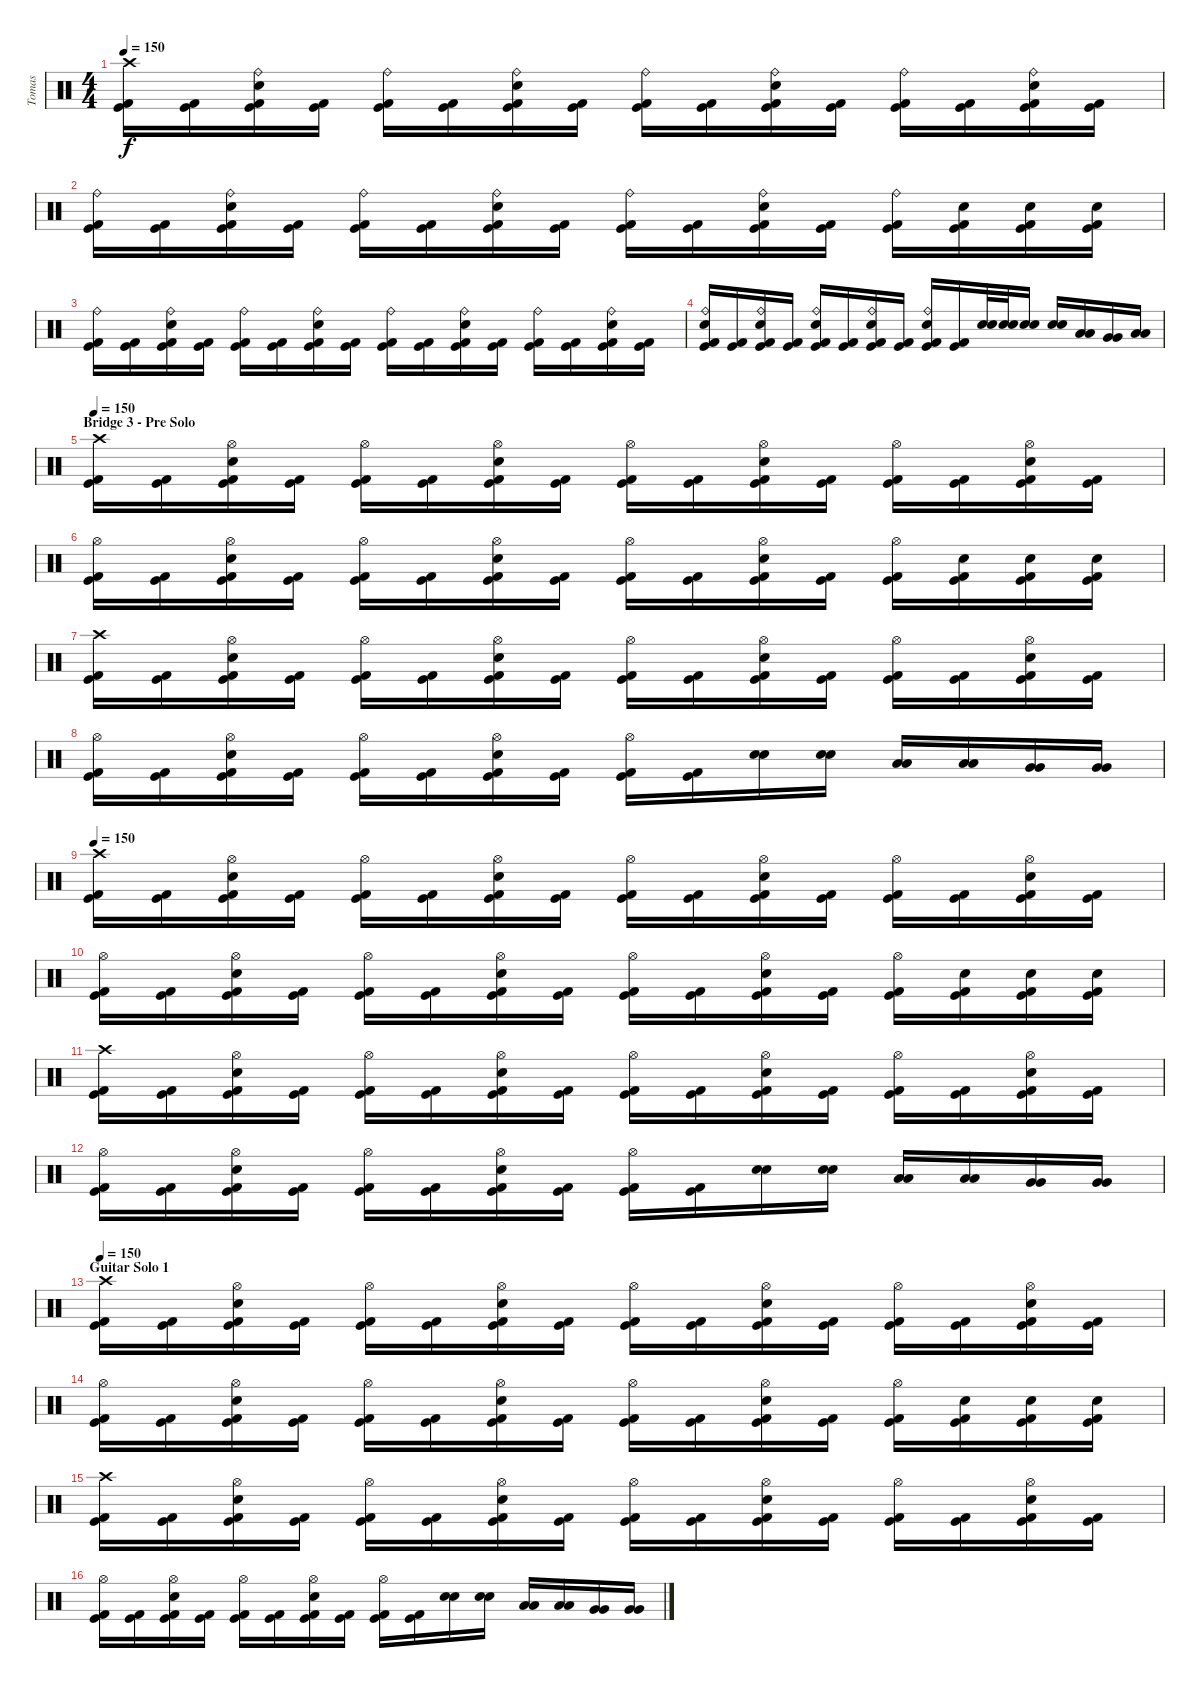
\track ("Tomas" "Tomas") {instrument percussion}
\staff {score}
\articulation defaults
\ts (4 4)
\tempo 150
\clef neutral
\ks c
("Crash high (hit)" "Kick (hit)" "Kick (hit) 2").16{dy f} ("Kick (hit)" "Kick (hit) 2").16 ("Ride (bell)" "Electric Snare (hit)" "Kick (hit)" "Kick (hit) 2").16 ("Kick (hit)" "Kick (hit) 2").16 ("Ride (bell)" "Kick (hit)" "Kick (hit) 2").16 ("Kick (hit)" "Kick (hit) 2").16 ("Ride (bell)" "Electric Snare (hit)" "Kick (hit)" "Kick (hit) 2").16 ("Kick (hit)" "Kick (hit) 2").16 ("Ride (bell)" "Kick (hit)" "Kick (hit) 2").16 ("Kick (hit)" "Kick (hit) 2").16 ("Ride (bell)" "Electric Snare (hit)" "Kick (hit)" "Kick (hit) 2").16 ("Kick (hit)" "Kick (hit) 2").16 ("Ride (bell)" "Kick (hit)" "Kick (hit) 2").16 ("Kick (hit)" "Kick (hit) 2").16 ("Ride (bell)" "Electric Snare (hit)" "Kick (hit)" "Kick (hit) 2").16 ("Kick (hit)" "Kick (hit) 2").16 |
("Ride (bell)" "Kick (hit)" "Kick (hit) 2").16 ("Kick (hit)" "Kick (hit) 2").16 ("Ride (bell)" "Electric Snare (hit)" "Kick (hit)" "Kick (hit) 2").16 ("Kick (hit)" "Kick (hit) 2").16 ("Ride (bell)" "Kick (hit)" "Kick (hit) 2").16 ("Kick (hit)" "Kick (hit) 2").16 ("Ride (bell)" "Electric Snare (hit)" "Kick (hit)" "Kick (hit) 2").16 ("Kick (hit)" "Kick (hit) 2").16 ("Ride (bell)" "Kick (hit)" "Kick (hit) 2").16 ("Kick (hit)" "Kick (hit) 2").16 ("Ride (bell)" "Electric Snare (hit)" "Kick (hit)" "Kick (hit) 2").16 ("Kick (hit)" "Kick (hit) 2").16 ("Ride (bell)" "Kick (hit)" "Kick (hit) 2").16 ("Electric Snare (hit)" "Kick (hit)" "Kick (hit) 2").16 ("Electric Snare (hit)" "Kick (hit)" "Kick (hit) 2").16 ("Electric Snare (hit)" "Kick (hit)" "Kick (hit) 2").16 |
("Ride (bell)" "Kick (hit)" "Kick (hit) 2").16 ("Kick (hit)" "Kick (hit) 2").16 ("Ride (bell)" "Electric Snare (hit)" "Kick (hit)" "Kick (hit) 2").16 ("Kick (hit)" "Kick (hit) 2").16 ("Ride (bell)" "Kick (hit)" "Kick (hit) 2").16 ("Kick (hit)" "Kick (hit) 2").16 ("Ride (bell)" "Electric Snare (hit)" "Kick (hit)" "Kick (hit) 2").16 ("Kick (hit)" "Kick (hit) 2").16 ("Ride (bell)" "Kick (hit)" "Kick (hit) 2").16 ("Kick (hit)" "Kick (hit) 2").16 ("Ride (bell)" "Electric Snare (hit)" "Kick (hit)" "Kick (hit) 2").16 ("Kick (hit)" "Kick (hit) 2").16 ("Ride (bell)" "Kick (hit)" "Kick (hit) 2").16 ("Kick (hit)" "Kick (hit) 2").16 ("Ride (bell)" "Electric Snare (hit)" "Kick (hit)" "Kick (hit) 2").16 ("Kick (hit)" "Kick (hit) 2").16 |
("Ride (bell)" "Electric Snare (hit)" "Kick (hit)" "Kick (hit) 2").16 ("Kick (hit)" "Kick (hit) 2").16 ("Ride (bell)" "Electric Snare (hit)" "Kick (hit)" "Kick (hit) 2").16 ("Kick (hit)" "Kick (hit) 2").16 ("Ride (bell)" "Electric Snare (hit)" "Kick (hit)" "Kick (hit) 2").16 ("Kick (hit)" "Kick (hit) 2").16 ("Ride (bell)" "Electric Snare (hit)" "Kick (hit)" "Kick (hit) 2").16 ("Kick (hit)" "Kick (hit) 2").16 ("Ride (bell)" "Electric Snare (hit)" "Kick (hit)" "Kick (hit) 2").16 ("Kick (hit)" "Kick (hit) 2").16 ("Electric Snare (hit)" "Electric Snare (hit)").32 ("Electric Snare (hit)" "Electric Snare (hit)").32 ("Electric Snare (hit)" "Electric Snare (hit)").16 ("Electric Snare (hit)" "Electric Snare (hit)").16 ("Low Tom (hit)" "Low Tom (hit)").16 ("Very Low Tom (hit)" "Very Low Tom (hit)").16 ("Low Floor Tom (hit)" "Low Floor Tom (hit)").16 |
\section ("" "Bridge 3 - Pre Solo")
\tempo 150
("Crash high (hit)" "Kick (hit)" "Kick (hit) 2").16 ("Kick (hit)" "Kick (hit) 2").16 ("Hi-Hat (open)" "Electric Snare (hit)" "Kick (hit)" "Kick (hit) 2").16 ("Kick (hit)" "Kick (hit) 2").16 ("Hi-Hat (open)" "Kick (hit)" "Kick (hit) 2").16 ("Kick (hit)" "Kick (hit) 2").16 ("Hi-Hat (open)" "Electric Snare (hit)" "Kick (hit)" "Kick (hit) 2").16 ("Kick (hit)" "Kick (hit) 2").16 ("Hi-Hat (open)" "Kick (hit)" "Kick (hit) 2").16 ("Kick (hit)" "Kick (hit) 2").16 ("Hi-Hat (open)" "Electric Snare (hit)" "Kick (hit)" "Kick (hit) 2").16 ("Kick (hit)" "Kick (hit) 2").16 ("Hi-Hat (open)" "Kick (hit)" "Kick (hit) 2").16 ("Kick (hit)" "Kick (hit) 2").16 ("Hi-Hat (open)" "Electric Snare (hit)" "Kick (hit)" "Kick (hit) 2").16 ("Kick (hit)" "Kick (hit) 2").16 |
("Hi-Hat (open)" "Kick (hit)" "Kick (hit) 2").16 ("Kick (hit)" "Kick (hit) 2").16 ("Hi-Hat (open)" "Electric Snare (hit)" "Kick (hit)" "Kick (hit) 2").16 ("Kick (hit)" "Kick (hit) 2").16 ("Hi-Hat (open)" "Kick (hit)" "Kick (hit) 2").16 ("Kick (hit)" "Kick (hit) 2").16 ("Hi-Hat (open)" "Electric Snare (hit)" "Kick (hit)" "Kick (hit) 2").16 ("Kick (hit)" "Kick (hit) 2").16 ("Hi-Hat (open)" "Kick (hit)" "Kick (hit) 2").16 ("Kick (hit)" "Kick (hit) 2").16 ("Hi-Hat (open)" "Electric Snare (hit)" "Kick (hit)" "Kick (hit) 2").16 ("Kick (hit)" "Kick (hit) 2").16 ("Hi-Hat (open)" "Kick (hit)" "Kick (hit) 2").16 ("Electric Snare (hit)" "Kick (hit)" "Kick (hit) 2").16 ("Electric Snare (hit)" "Kick (hit)" "Kick (hit) 2").16 ("Electric Snare (hit)" "Kick (hit)" "Kick (hit) 2").16 |
("Crash high (hit)" "Kick (hit)" "Kick (hit) 2").16 ("Kick (hit)" "Kick (hit) 2").16 ("Hi-Hat (open)" "Electric Snare (hit)" "Kick (hit)" "Kick (hit) 2").16 ("Kick (hit)" "Kick (hit) 2").16 ("Hi-Hat (open)" "Kick (hit)" "Kick (hit) 2").16 ("Kick (hit)" "Kick (hit) 2").16 ("Hi-Hat (open)" "Electric Snare (hit)" "Kick (hit)" "Kick (hit) 2").16 ("Kick (hit)" "Kick (hit) 2").16 ("Hi-Hat (open)" "Kick (hit)" "Kick (hit) 2").16 ("Kick (hit)" "Kick (hit) 2").16 ("Hi-Hat (open)" "Electric Snare (hit)" "Kick (hit)" "Kick (hit) 2").16 ("Kick (hit)" "Kick (hit) 2").16 ("Hi-Hat (open)" "Kick (hit)" "Kick (hit) 2").16 ("Kick (hit)" "Kick (hit) 2").16 ("Hi-Hat (open)" "Electric Snare (hit)" "Kick (hit)" "Kick (hit) 2").16 ("Kick (hit)" "Kick (hit) 2").16 |
("Hi-Hat (open)" "Kick (hit)" "Kick (hit) 2").16 ("Kick (hit)" "Kick (hit) 2").16 ("Hi-Hat (open)" "Electric Snare (hit)" "Kick (hit)" "Kick (hit) 2").16 ("Kick (hit)" "Kick (hit) 2").16 ("Hi-Hat (open)" "Kick (hit)" "Kick (hit) 2").16 ("Kick (hit)" "Kick (hit) 2").16 ("Hi-Hat (open)" "Electric Snare (hit)" "Kick (hit)" "Kick (hit) 2").16 ("Kick (hit)" "Kick (hit) 2").16 ("Hi-Hat (open)" "Kick (hit)" "Kick (hit) 2").16 ("Kick (hit)" "Kick (hit) 2").16 ("Electric Snare (hit)" "Electric Snare (hit)").16 ("Electric Snare (hit)" "Electric Snare (hit)").16 ("Low Tom (hit)" "Low Tom (hit)").16 ("Low Tom (hit)" "Low Tom (hit)").16 ("Very Low Tom (hit)" "Very Low Tom (hit)").16 ("Very Low Tom (hit)" "Very Low Tom (hit)").16 |
\tempo 150
("Crash high (hit)" "Kick (hit)" "Kick (hit) 2").16 ("Kick (hit)" "Kick (hit) 2").16 ("Hi-Hat (open)" "Electric Snare (hit)" "Kick (hit)" "Kick (hit) 2").16 ("Kick (hit)" "Kick (hit) 2").16 ("Hi-Hat (open)" "Kick (hit)" "Kick (hit) 2").16 ("Kick (hit)" "Kick (hit) 2").16 ("Hi-Hat (open)" "Electric Snare (hit)" "Kick (hit)" "Kick (hit) 2").16 ("Kick (hit)" "Kick (hit) 2").16 ("Hi-Hat (open)" "Kick (hit)" "Kick (hit) 2").16 ("Kick (hit)" "Kick (hit) 2").16 ("Hi-Hat (open)" "Electric Snare (hit)" "Kick (hit)" "Kick (hit) 2").16 ("Kick (hit)" "Kick (hit) 2").16 ("Hi-Hat (open)" "Kick (hit)" "Kick (hit) 2").16 ("Kick (hit)" "Kick (hit) 2").16 ("Hi-Hat (open)" "Electric Snare (hit)" "Kick (hit)" "Kick (hit) 2").16 ("Kick (hit)" "Kick (hit) 2").16 |
("Hi-Hat (open)" "Kick (hit)" "Kick (hit) 2").16 ("Kick (hit)" "Kick (hit) 2").16 ("Hi-Hat (open)" "Electric Snare (hit)" "Kick (hit)" "Kick (hit) 2").16 ("Kick (hit)" "Kick (hit) 2").16 ("Hi-Hat (open)" "Kick (hit)" "Kick (hit) 2").16 ("Kick (hit)" "Kick (hit) 2").16 ("Hi-Hat (open)" "Electric Snare (hit)" "Kick (hit)" "Kick (hit) 2").16 ("Kick (hit)" "Kick (hit) 2").16 ("Hi-Hat (open)" "Kick (hit)" "Kick (hit) 2").16 ("Kick (hit)" "Kick (hit) 2").16 ("Hi-Hat (open)" "Electric Snare (hit)" "Kick (hit)" "Kick (hit) 2").16 ("Kick (hit)" "Kick (hit) 2").16 ("Hi-Hat (open)" "Kick (hit)" "Kick (hit) 2").16 ("Electric Snare (hit)" "Kick (hit)" "Kick (hit) 2").16 ("Electric Snare (hit)" "Kick (hit)" "Kick (hit) 2").16 ("Electric Snare (hit)" "Kick (hit)" "Kick (hit) 2").16 |
("Crash high (hit)" "Kick (hit)" "Kick (hit) 2").16 ("Kick (hit)" "Kick (hit) 2").16 ("Hi-Hat (open)" "Electric Snare (hit)" "Kick (hit)" "Kick (hit) 2").16 ("Kick (hit)" "Kick (hit) 2").16 ("Hi-Hat (open)" "Kick (hit)" "Kick (hit) 2").16 ("Kick (hit)" "Kick (hit) 2").16 ("Hi-Hat (open)" "Electric Snare (hit)" "Kick (hit)" "Kick (hit) 2").16 ("Kick (hit)" "Kick (hit) 2").16 ("Hi-Hat (open)" "Kick (hit)" "Kick (hit) 2").16 ("Kick (hit)" "Kick (hit) 2").16 ("Hi-Hat (open)" "Electric Snare (hit)" "Kick (hit)" "Kick (hit) 2").16 ("Kick (hit)" "Kick (hit) 2").16 ("Hi-Hat (open)" "Kick (hit)" "Kick (hit) 2").16 ("Kick (hit)" "Kick (hit) 2").16 ("Hi-Hat (open)" "Electric Snare (hit)" "Kick (hit)" "Kick (hit) 2").16 ("Kick (hit)" "Kick (hit) 2").16 |
("Hi-Hat (open)" "Kick (hit)" "Kick (hit) 2").16 ("Kick (hit)" "Kick (hit) 2").16 ("Hi-Hat (open)" "Electric Snare (hit)" "Kick (hit)" "Kick (hit) 2").16 ("Kick (hit)" "Kick (hit) 2").16 ("Hi-Hat (open)" "Kick (hit)" "Kick (hit) 2").16 ("Kick (hit)" "Kick (hit) 2").16 ("Hi-Hat (open)" "Electric Snare (hit)" "Kick (hit)" "Kick (hit) 2").16 ("Kick (hit)" "Kick (hit) 2").16 ("Hi-Hat (open)" "Kick (hit)" "Kick (hit) 2").16 ("Kick (hit)" "Kick (hit) 2").16 ("Electric Snare (hit)" "Electric Snare (hit)").16 ("Electric Snare (hit)" "Electric Snare (hit)").16 ("Low Tom (hit)" "Low Tom (hit)").16 ("Low Tom (hit)" "Low Tom (hit)").16 ("Very Low Tom (hit)" "Very Low Tom (hit)").16 ("Very Low Tom (hit)" "Very Low Tom (hit)").16 |
\section ("" "Guitar Solo 1")
\tempo 150
("Crash high (hit)" "Kick (hit)" "Kick (hit) 2").16 ("Kick (hit)" "Kick (hit) 2").16 ("Hi-Hat (open)" "Electric Snare (hit)" "Kick (hit)" "Kick (hit) 2").16 ("Kick (hit)" "Kick (hit) 2").16 ("Hi-Hat (open)" "Kick (hit)" "Kick (hit) 2").16 ("Kick (hit)" "Kick (hit) 2").16 ("Hi-Hat (open)" "Electric Snare (hit)" "Kick (hit)" "Kick (hit) 2").16 ("Kick (hit)" "Kick (hit) 2").16 ("Hi-Hat (open)" "Kick (hit)" "Kick (hit) 2").16 ("Kick (hit)" "Kick (hit) 2").16 ("Hi-Hat (open)" "Electric Snare (hit)" "Kick (hit)" "Kick (hit) 2").16 ("Kick (hit)" "Kick (hit) 2").16 ("Hi-Hat (open)" "Kick (hit)" "Kick (hit) 2").16 ("Kick (hit)" "Kick (hit) 2").16 ("Hi-Hat (open)" "Electric Snare (hit)" "Kick (hit)" "Kick (hit) 2").16 ("Kick (hit)" "Kick (hit) 2").16 |
("Hi-Hat (open)" "Kick (hit)" "Kick (hit) 2").16 ("Kick (hit)" "Kick (hit) 2").16 ("Hi-Hat (open)" "Electric Snare (hit)" "Kick (hit)" "Kick (hit) 2").16 ("Kick (hit)" "Kick (hit) 2").16 ("Hi-Hat (open)" "Kick (hit)" "Kick (hit) 2").16 ("Kick (hit)" "Kick (hit) 2").16 ("Hi-Hat (open)" "Electric Snare (hit)" "Kick (hit)" "Kick (hit) 2").16 ("Kick (hit)" "Kick (hit) 2").16 ("Hi-Hat (open)" "Kick (hit)" "Kick (hit) 2").16 ("Kick (hit)" "Kick (hit) 2").16 ("Hi-Hat (open)" "Electric Snare (hit)" "Kick (hit)" "Kick (hit) 2").16 ("Kick (hit)" "Kick (hit) 2").16 ("Hi-Hat (open)" "Kick (hit)" "Kick (hit) 2").16 ("Electric Snare (hit)" "Kick (hit)" "Kick (hit) 2").16 ("Electric Snare (hit)" "Kick (hit)" "Kick (hit) 2").16 ("Electric Snare (hit)" "Kick (hit)" "Kick (hit) 2").16 |
("Crash high (hit)" "Kick (hit)" "Kick (hit) 2").16 ("Kick (hit)" "Kick (hit) 2").16 ("Hi-Hat (open)" "Electric Snare (hit)" "Kick (hit)" "Kick (hit) 2").16 ("Kick (hit)" "Kick (hit) 2").16 ("Hi-Hat (open)" "Kick (hit)" "Kick (hit) 2").16 ("Kick (hit)" "Kick (hit) 2").16 ("Hi-Hat (open)" "Electric Snare (hit)" "Kick (hit)" "Kick (hit) 2").16 ("Kick (hit)" "Kick (hit) 2").16 ("Hi-Hat (open)" "Kick (hit)" "Kick (hit) 2").16 ("Kick (hit)" "Kick (hit) 2").16 ("Hi-Hat (open)" "Electric Snare (hit)" "Kick (hit)" "Kick (hit) 2").16 ("Kick (hit)" "Kick (hit) 2").16 ("Hi-Hat (open)" "Kick (hit)" "Kick (hit) 2").16 ("Kick (hit)" "Kick (hit) 2").16 ("Hi-Hat (open)" "Electric Snare (hit)" "Kick (hit)" "Kick (hit) 2").16 ("Kick (hit)" "Kick (hit) 2").16 |
("Hi-Hat (open)" "Kick (hit)" "Kick (hit) 2").16 ("Kick (hit)" "Kick (hit) 2").16 ("Hi-Hat (open)" "Electric Snare (hit)" "Kick (hit)" "Kick (hit) 2").16 ("Kick (hit)" "Kick (hit) 2").16 ("Hi-Hat (open)" "Kick (hit)" "Kick (hit) 2").16 ("Kick (hit)" "Kick (hit) 2").16 ("Hi-Hat (open)" "Electric Snare (hit)" "Kick (hit)" "Kick (hit) 2").16 ("Kick (hit)" "Kick (hit) 2").16 ("Hi-Hat (open)" "Kick (hit)" "Kick (hit) 2").16 ("Kick (hit)" "Kick (hit) 2").16 ("Electric Snare (hit)" "Electric Snare (hit)").16 ("Electric Snare (hit)" "Electric Snare (hit)").16 ("Low Tom (hit)" "Low Tom (hit)").16 ("Low Tom (hit)" "Low Tom (hit)").16 ("Very Low Tom (hit)" "Very Low Tom (hit)").16 ("Very Low Tom (hit)" "Very Low Tom (hit)").16
